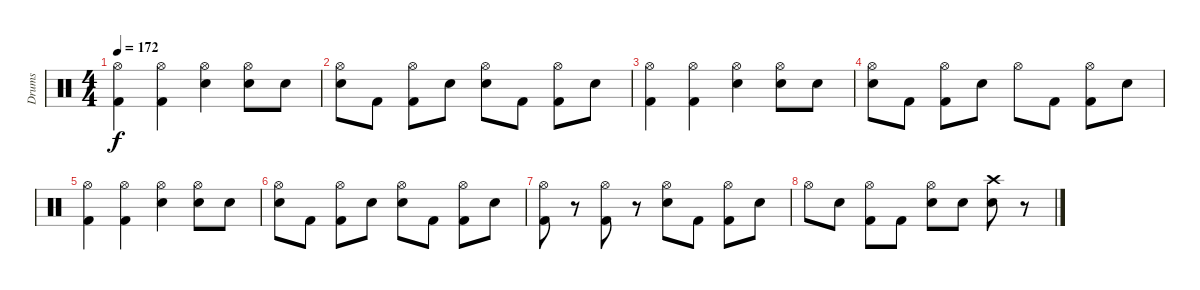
\track ("Drums" "Drums") {instrument percussion}
\staff {score}
\articulation defaults
\ts (4 4)
\tempo 172
\clef neutral
\ks c
("Hi-Hat (open)" "Kick (hit) 2").4{dy f} ("Hi-Hat (open)" "Kick (hit) 2").4 ("Hi-Hat (open)" "Snare (hit) 2").4 ("Hi-Hat (open)" "Snare (hit) 2").8 "Snare (hit) 2".8 |
("Hi-Hat (open)" "Snare (hit) 2").8 "Kick (hit) 2".8 ("Hi-Hat (open)" "Kick (hit) 2").8 "Snare (hit) 2".8 ("Hi-Hat (open)" "Snare (hit) 2").8 "Kick (hit) 2".8 ("Hi-Hat (open)" "Kick (hit) 2").8 "Snare (hit) 2".8 |
("Hi-Hat (open)" "Kick (hit) 2").4 ("Hi-Hat (open)" "Kick (hit) 2").4 ("Hi-Hat (open)" "Snare (hit) 2").4 ("Hi-Hat (open)" "Snare (hit) 2").8 "Snare (hit) 2".8 |
("Hi-Hat (open)" "Snare (hit) 2").8 "Kick (hit) 2".8 ("Hi-Hat (open)" "Kick (hit) 2").8 "Snare (hit) 2".8 "Hi-Hat (open)".8 "Kick (hit) 2".8 ("Hi-Hat (open)" "Kick (hit) 2").8 "Snare (hit) 2".8 |
("Hi-Hat (open)" "Kick (hit) 2").4 ("Hi-Hat (open)" "Kick (hit) 2").4 ("Hi-Hat (open)" "Snare (hit) 2").4 ("Hi-Hat (open)" "Snare (hit) 2").8 "Snare (hit) 2".8 |
("Hi-Hat (open)" "Snare (hit) 2").8 "Kick (hit) 2".8 ("Hi-Hat (open)" "Kick (hit) 2").8 "Snare (hit) 2".8 ("Hi-Hat (open)" "Snare (hit) 2").8 "Kick (hit) 2".8 ("Hi-Hat (open)" "Kick (hit) 2").8 "Snare (hit) 2".8 |
("Hi-Hat (open)" "Kick (hit) 2").8 r.8 ("Hi-Hat (open)" "Kick (hit) 2").8 r.8 ("Hi-Hat (open)" "Snare (hit) 2").8 "Kick (hit) 2".8 ("Hi-Hat (open)" "Kick (hit) 2").8 "Snare (hit) 2".8 |
"Hi-Hat (open)".8 "Snare (hit) 2".8 ("Hi-Hat (open)" "Kick (hit) 2").8 "Kick (hit) 2".8 ("Hi-Hat (open)" "Snare (hit) 2").8 "Snare (hit) 2".8 ("Crash high (hit)" "Snare (hit) 2").8 r.8
